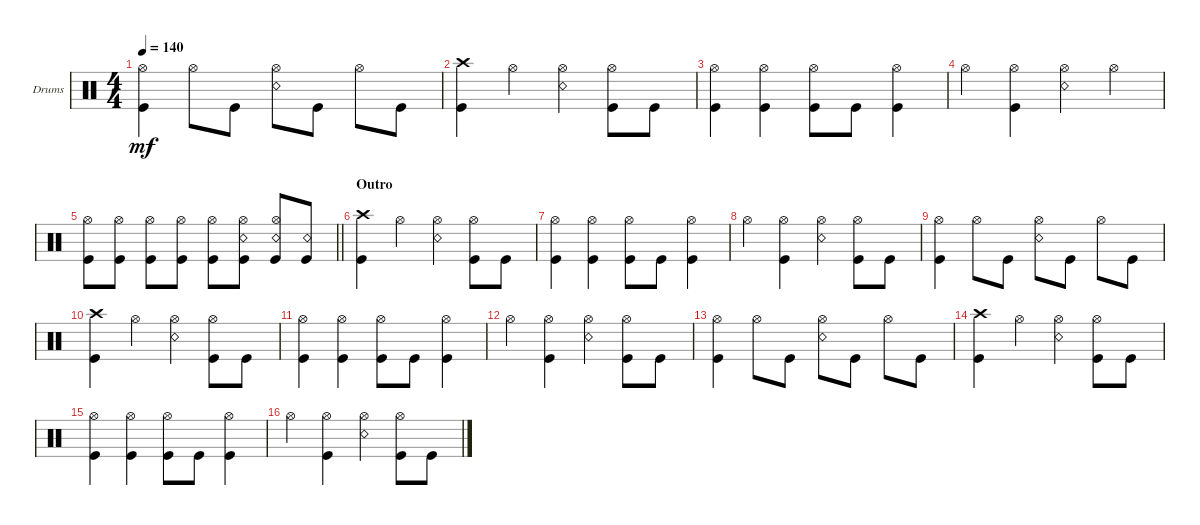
\bracketExtendMode groupsimilarinstruments
\firstSystemTrackNameOrientation horizontal
\otherSystemsTrackNameOrientation horizontal
\track ("Drumkit" "Drums") {instrument percussion}
\staff {score}
\articulation defaults
\ts (4 4)
\tempo 140
\clef neutral
\ks c
("Kick (hit)" "Hi-Hat (open)").4{dy mf} "Hi-Hat (open)".8 "Kick (hit)".8 ("Snare (rim shot)" "Hi-Hat (open)").8 "Kick (hit)".8 "Hi-Hat (open)".8 "Kick (hit)".8 |
("Kick (hit)" "Crash high (hit)").4 "Hi-Hat (open)".4 ("Snare (rim shot)" "Hi-Hat (open)").4 ("Hi-Hat (open)" "Kick (hit)").8 "Kick (hit)".8 |
("Kick (hit)" "Hi-Hat (open)").4 ("Kick (hit)" "Hi-Hat (open)").4 ("Kick (hit)" "Hi-Hat (open)").8 "Kick (hit)".8 ("Kick (hit)" "Hi-Hat (open)").4 |
"Hi-Hat (open)".4 ("Hi-Hat (open)" "Kick (hit)").4 ("Hi-Hat (open)" "Snare (rim shot)").4 "Hi-Hat (open)".4 |
\barLineRight lightlight
("Kick (hit)" "Hi-Hat (open)").8 ("Kick (hit)" "Hi-Hat (open)").8 ("Kick (hit)" "Hi-Hat (open)").8 ("Kick (hit)" "Hi-Hat (open)").8 ("Kick (hit)" "Hi-Hat (open)").8 ("Kick (hit)" "Snare (rim shot)" "Hi-Hat (open)").8 ("Kick (hit)" "Snare (rim shot)" "Hi-Hat (open)").8 ("Snare (rim shot)" "Kick (hit)").8 |
\section ("" "Outro")
("Kick (hit)" "Crash high (hit)").4 "Hi-Hat (open)".4 ("Snare (rim shot)" "Hi-Hat (open)").4 ("Hi-Hat (open)" "Kick (hit)").8 "Kick (hit)".8 |
("Kick (hit)" "Hi-Hat (open)").4 ("Kick (hit)" "Hi-Hat (open)").4 ("Kick (hit)" "Hi-Hat (open)").8 "Kick (hit)".8 ("Kick (hit)" "Hi-Hat (open)").4 |
"Hi-Hat (open)".4 ("Hi-Hat (open)" "Kick (hit)").4 ("Hi-Hat (open)" "Snare (rim shot)").4 ("Hi-Hat (open)" "Kick (hit)").8 "Kick (hit)".8 |
("Kick (hit)" "Hi-Hat (open)").4 "Hi-Hat (open)".8 "Kick (hit)".8 ("Snare (rim shot)" "Hi-Hat (open)").8 "Kick (hit)".8 "Hi-Hat (open)".8 "Kick (hit)".8 |
("Kick (hit)" "Crash high (hit)").4 "Hi-Hat (open)".4 ("Snare (rim shot)" "Hi-Hat (open)").4 ("Hi-Hat (open)" "Kick (hit)").8 "Kick (hit)".8 |
("Kick (hit)" "Hi-Hat (open)").4 ("Kick (hit)" "Hi-Hat (open)").4 ("Kick (hit)" "Hi-Hat (open)").8 "Kick (hit)".8 ("Kick (hit)" "Hi-Hat (open)").4 |
"Hi-Hat (open)".4 ("Hi-Hat (open)" "Kick (hit)").4 ("Hi-Hat (open)" "Snare (rim shot)").4 ("Hi-Hat (open)" "Kick (hit)").8 "Kick (hit)".8 |
("Kick (hit)" "Hi-Hat (open)").4 "Hi-Hat (open)".8 "Kick (hit)".8 ("Snare (rim shot)" "Hi-Hat (open)").8 "Kick (hit)".8 "Hi-Hat (open)".8 "Kick (hit)".8 |
("Kick (hit)" "Crash high (hit)").4 "Hi-Hat (open)".4 ("Snare (rim shot)" "Hi-Hat (open)").4 ("Hi-Hat (open)" "Kick (hit)").8 "Kick (hit)".8 |
("Kick (hit)" "Hi-Hat (open)").4 ("Kick (hit)" "Hi-Hat (open)").4 ("Kick (hit)" "Hi-Hat (open)").8 "Kick (hit)".8 ("Kick (hit)" "Hi-Hat (open)").4 |
"Hi-Hat (open)".4 ("Hi-Hat (open)" "Kick (hit)").4 ("Hi-Hat (open)" "Snare (rim shot)").4 ("Hi-Hat (open)" "Kick (hit)").8 "Kick (hit)".8
